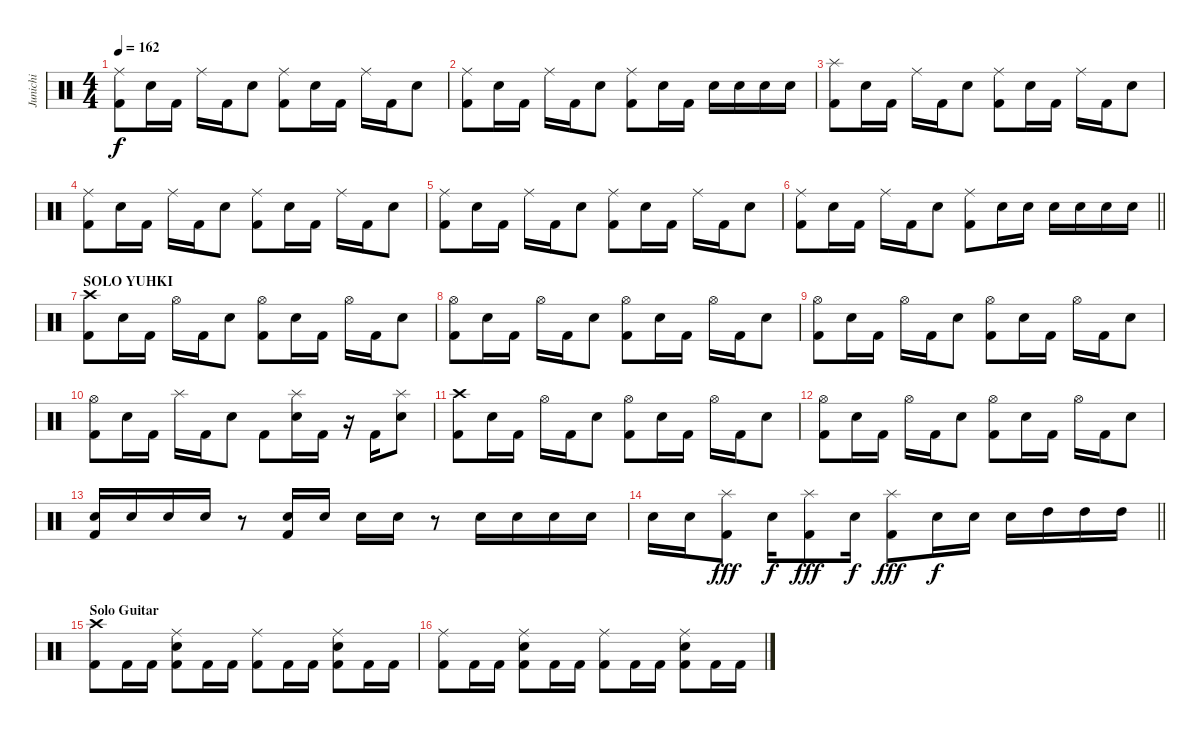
\track ("Junichi" "Junichi") {instrument percussion}
\staff {score}
\articulation defaults
\ts (4 4)
\tempo 162
\clef neutral
\ks c
("Ride (middle)" "Kick (hit) 2").8{dy f} "Electric Snare (hit)".16 "Kick (hit) 2".16 "Ride (middle)".16 "Kick (hit) 2".16 "Electric Snare (hit)".8 ("Ride (middle)" "Kick (hit) 2").8 "Electric Snare (hit)".16 "Kick (hit) 2".16 "Ride (middle)".16 "Kick (hit) 2".16 "Electric Snare (hit)".8 |
("Ride (middle)" "Kick (hit) 2").8 "Electric Snare (hit)".16 "Kick (hit) 2".16 "Ride (middle)".16 "Kick (hit) 2".16 "Electric Snare (hit)".8 ("Ride (middle)" "Kick (hit) 2").8 "Electric Snare (hit)".16 "Kick (hit) 2".16 "Electric Snare (hit)".16 "Electric Snare (hit)".16 "Electric Snare (hit)".16 "Electric Snare (hit)".16 |
("Splash (hit)" "Kick (hit) 2").8 "Electric Snare (hit)".16 "Kick (hit) 2".16 "Ride (middle)".16 "Kick (hit) 2".16 "Electric Snare (hit)".8 ("Ride (middle)" "Kick (hit) 2").8 "Electric Snare (hit)".16 "Kick (hit) 2".16 "Ride (middle)".16 "Kick (hit) 2".16 "Electric Snare (hit)".8 |
("Ride (middle)" "Kick (hit) 2").8 "Electric Snare (hit)".16 "Kick (hit) 2".16 "Ride (middle)".16 "Kick (hit) 2".16 "Electric Snare (hit)".8 ("Ride (middle)" "Kick (hit) 2").8 "Electric Snare (hit)".16 "Kick (hit) 2".16 "Ride (middle)".16 "Kick (hit) 2".16 "Electric Snare (hit)".8 |
("Ride (middle)" "Kick (hit) 2").8 "Electric Snare (hit)".16 "Kick (hit) 2".16 "Ride (middle)".16 "Kick (hit) 2".16 "Electric Snare (hit)".8 ("Ride (middle)" "Kick (hit) 2").8 "Electric Snare (hit)".16 "Kick (hit) 2".16 "Ride (middle)".16 "Kick (hit) 2".16 "Electric Snare (hit)".8 |
\barLineRight lightlight
("Ride (middle)" "Kick (hit) 2").8 "Electric Snare (hit)".16 "Kick (hit) 2".16 "Ride (middle)".16 "Kick (hit) 2".16 "Electric Snare (hit)".8 ("Ride (middle)" "Kick (hit) 2").8 "Electric Snare (hit)".16 "Electric Snare (hit)".16 "Electric Snare (hit)".16 "Electric Snare (hit)".16 "Electric Snare (hit)".16 "Electric Snare (hit)".16 |
\section ("" "SOLO YUHKI")
("Crash high (hit)" "Kick (hit) 2").8 "Electric Snare (hit)".16 "Kick (hit) 2".16 "Hi-Hat (open)".16 "Kick (hit) 2".16 "Electric Snare (hit)".8 ("Hi-Hat (open)" "Kick (hit) 2").8 "Electric Snare (hit)".16 "Kick (hit) 2".16 "Hi-Hat (open)".16 "Kick (hit) 2".16 "Electric Snare (hit)".8 |
("Hi-Hat (open)" "Kick (hit) 2").8 "Electric Snare (hit)".16 "Kick (hit) 2".16 "Hi-Hat (open)".16 "Kick (hit) 2".16 "Electric Snare (hit)".8 ("Hi-Hat (open)" "Kick (hit) 2").8 "Electric Snare (hit)".16 "Kick (hit) 2".16 "Hi-Hat (open)".16 "Kick (hit) 2".16 "Electric Snare (hit)".8 |
("Hi-Hat (open)" "Kick (hit) 2").8 "Electric Snare (hit)".16 "Kick (hit) 2".16 "Hi-Hat (open)".16 "Kick (hit) 2".16 "Electric Snare (hit)".8 ("Hi-Hat (open)" "Kick (hit) 2").8 "Electric Snare (hit)".16 "Kick (hit) 2".16 "Hi-Hat (open)".16 "Kick (hit) 2".16 "Electric Snare (hit)".8 |
("Hi-Hat (open)" "Kick (hit) 2").8 "Electric Snare (hit)".16 "Kick (hit) 2".16 "Splash (hit)".16 "Kick (hit) 2".16 "Electric Snare (hit)".8 "Kick (hit) 2".8 ("Splash (hit)" "Electric Snare (hit)").16 "Kick (hit) 2".16 r.16 "Kick (hit) 2".16 ("Splash (hit)" "Electric Snare (hit)").8 |
("Crash high (hit)" "Kick (hit) 2").8 "Electric Snare (hit)".16 "Kick (hit) 2".16 "Hi-Hat (open)".16 "Kick (hit) 2".16 "Electric Snare (hit)".8 ("Hi-Hat (open)" "Kick (hit) 2").8 "Electric Snare (hit)".16 "Kick (hit) 2".16 "Hi-Hat (open)".16 "Kick (hit) 2".16 "Electric Snare (hit)".8 |
("Hi-Hat (open)" "Kick (hit) 2").8 "Electric Snare (hit)".16 "Kick (hit) 2".16 "Hi-Hat (open)".16 "Kick (hit) 2".16 "Electric Snare (hit)".8 ("Hi-Hat (open)" "Kick (hit) 2").8 "Electric Snare (hit)".16 "Kick (hit) 2".16 "Hi-Hat (open)".16 "Kick (hit) 2".16 "Electric Snare (hit)".8 |
("Electric Snare (hit)" "Kick (hit) 2").16 "Electric Snare (hit)".16 "Electric Snare (hit)".16 "Electric Snare (hit)".16 r.8 ("Electric Snare (hit)" "Kick (hit) 2").16 "Electric Snare (hit)".16 "Electric Snare (hit)".16 "Electric Snare (hit)".16 r.8 "Electric Snare (hit)".16 "Electric Snare (hit)".16 "Electric Snare (hit)".16 "Electric Snare (hit)".16 |
\barLineRight lightlight "Electric Snare (hit)".16 "Electric Snare (hit)".16
("Splash (hit)" "Kick (hit) 2").8{dy fff} "Electric Snare (hit)".16{dy f} ("Splash (hit)" "Kick (hit) 2").8{dy fff} "Electric Snare (hit)".16{dy f} ("Splash (hit)" "Kick (hit) 2").8{dy fff} "Electric Snare (hit)".16{dy f} "Electric Snare (hit)".16 "Electric Snare (hit)".16 "High Tom (hit)".16 "High Tom (hit)".16 "High Tom (hit)".16 |
\section ("" "Solo Guitar")
("Crash high (hit)" "Kick (hit) 2").8 "Kick (hit) 2".16 "Kick (hit) 2".16 ("Ride (middle)" "Electric Snare (hit)" "Kick (hit) 2").8 "Kick (hit) 2".16 "Kick (hit) 2".16 ("Ride (middle)" "Kick (hit) 2").8 "Kick (hit) 2".16 "Kick (hit) 2".16 ("Ride (middle)" "Electric Snare (hit)" "Kick (hit) 2").8 "Kick (hit) 2".16 "Kick (hit) 2".16 |
("Ride (middle)" "Kick (hit) 2").8 "Kick (hit) 2".16 "Kick (hit) 2".16 ("Ride (middle)" "Electric Snare (hit)" "Kick (hit) 2").8 "Kick (hit) 2".16 "Kick (hit) 2".16 ("Ride (middle)" "Kick (hit) 2").8 "Kick (hit) 2".16 "Kick (hit) 2".16 ("Ride (middle)" "Electric Snare (hit)" "Kick (hit) 2").8 "Kick (hit) 2".16 "Kick (hit) 2".16
